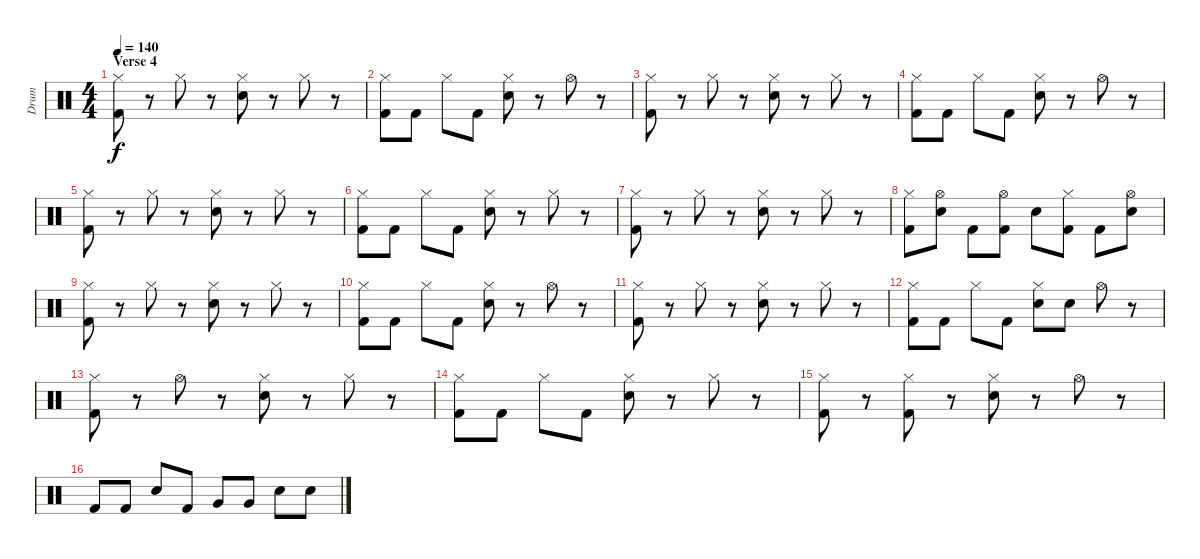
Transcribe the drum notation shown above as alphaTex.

\track ("Drum" "Drum") {instrument percussion}
\staff {score}
\articulation defaults
\ts (4 4)
\section ("" "Verse 4")
\tempo 140
\clef neutral
\ks c
("Hi-Hat (closed)" "Kick (hit) 2").8{dy f} r.8 "Hi-Hat (closed)".8 r.8 ("Hi-Hat (closed)" "Electric Snare (hit)").8 r.8 "Hi-Hat (closed)".8 r.8 |
("Hi-Hat (closed)" "Kick (hit) 2").8 "Kick (hit) 2".8 "Hi-Hat (closed)".8 "Kick (hit) 2".8 ("Hi-Hat (closed)" "Electric Snare (hit)").8 r.8 "Hi-Hat (open)".8 r.8 |
("Hi-Hat (closed)" "Kick (hit) 2").8 r.8 "Hi-Hat (closed)".8 r.8 ("Hi-Hat (closed)" "Electric Snare (hit)").8 r.8 "Hi-Hat (closed)".8 r.8 |
("Hi-Hat (closed)" "Kick (hit) 2").8 "Kick (hit) 2".8 "Hi-Hat (closed)".8 "Kick (hit) 2".8 ("Hi-Hat (closed)" "Electric Snare (hit)").8 r.8 "Hi-Hat (open)".8 r.8 |
("Hi-Hat (closed)" "Kick (hit) 2").8 r.8 "Hi-Hat (closed)".8 r.8 ("Hi-Hat (closed)" "Electric Snare (hit)").8 r.8 "Hi-Hat (closed)".8 r.8 |
("Hi-Hat (closed)" "Kick (hit) 2").8 "Kick (hit) 2".8 "Hi-Hat (closed)".8 "Kick (hit) 2".8 ("Hi-Hat (closed)" "Electric Snare (hit)").8 r.8 "Hi-Hat (closed)".8 r.8 |
("Hi-Hat (closed)" "Kick (hit) 2").8 r.8 "Hi-Hat (closed)".8 r.8 ("Hi-Hat (closed)" "Electric Snare (hit)").8 r.8 "Hi-Hat (closed)".8 r.8 |
("Hi-Hat (closed)" "Kick (hit) 2").8 ("Hi-Hat (open)" "Electric Snare (hit)").8 "Kick (hit) 2".8 ("Hi-Hat (open)" "Kick (hit) 2").8 "Electric Snare (hit)".8 ("Hi-Hat (closed)" "Kick (hit) 2").8 "Kick (hit) 2".8 ("Hi-Hat (open)" "Electric Snare (hit)").8 |
("Hi-Hat (closed)" "Kick (hit) 2").8 r.8 "Hi-Hat (closed)".8 r.8 ("Hi-Hat (closed)" "Electric Snare (hit)").8 r.8 "Hi-Hat (closed)".8 r.8 |
("Hi-Hat (closed)" "Kick (hit) 2").8 "Kick (hit) 2".8 "Hi-Hat (closed)".8 "Kick (hit) 2".8 ("Hi-Hat (closed)" "Electric Snare (hit)").8 r.8 "Hi-Hat (open)".8 r.8 |
("Hi-Hat (closed)" "Kick (hit) 2").8 r.8 "Hi-Hat (closed)".8 r.8 ("Hi-Hat (closed)" "Electric Snare (hit)").8 r.8 "Hi-Hat (closed)".8 r.8 |
("Hi-Hat (closed)" "Kick (hit) 2").8 "Kick (hit) 2".8 "Hi-Hat (closed)".8 "Kick (hit) 2".8 ("Hi-Hat (closed)" "Electric Snare (hit)").8 "Electric Snare (hit)".8 "Hi-Hat (open)".8 r.8 |
("Hi-Hat (closed)" "Kick (hit) 2").8 r.8 "Hi-Hat (open)".8 r.8 ("Hi-Hat (closed)" "Electric Snare (hit)").8 r.8 "Hi-Hat (closed)".8 r.8 |
("Hi-Hat (closed)" "Kick (hit) 2").8 "Kick (hit) 2".8 "Hi-Hat (closed)".8 "Kick (hit) 2".8 ("Hi-Hat (closed)" "Electric Snare (hit)").8 r.8 "Hi-Hat (closed)".8 r.8 |
("Hi-Hat (closed)" "Kick (hit) 2").8 r.8 ("Hi-Hat (closed)" "Kick (hit) 2").8 r.8 ("Hi-Hat (closed)" "Electric Snare (hit)").8 r.8 "Hi-Hat (open)".8 r.8 |
"Kick (hit) 2".8 "Kick (hit) 2".8 "Electric Snare (hit)".8 "Kick (hit) 2".8 "Very Low Tom (hit)".8 "Very Low Tom (hit)".8 "Electric Snare (hit)".8 "Electric Snare (hit)".8
